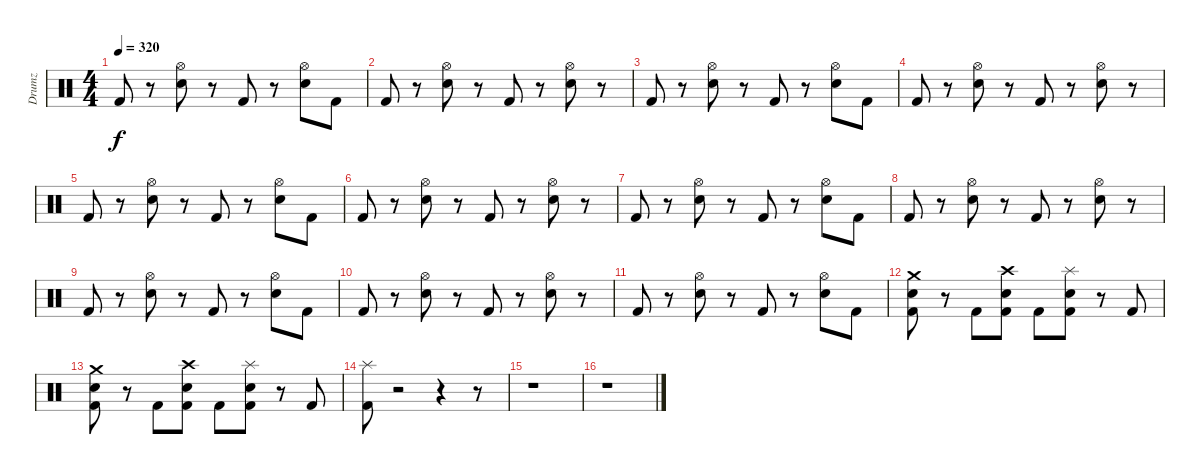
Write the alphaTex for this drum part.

\track ("Drumz" "Drumz") {instrument percussion}
\staff {score}
\articulation defaults
\ts (4 4)
\tempo 320
\clef neutral
\ks c "Kick (hit) 2".8{dy f}
r.8 ("Snare (hit) 2" "Hi-Hat (open)").8 r.8 "Kick (hit) 2".8 r.8 ("Snare (hit) 2" "Hi-Hat (open)").8 "Kick (hit) 2".8 |
"Kick (hit) 2".8 r.8 ("Snare (hit) 2" "Hi-Hat (open)").8 r.8 "Kick (hit) 2".8 r.8 ("Snare (hit) 2" "Hi-Hat (open)").8 r.8 |
"Kick (hit) 2".8 r.8 ("Snare (hit) 2" "Hi-Hat (open)").8 r.8 "Kick (hit) 2".8 r.8 ("Snare (hit) 2" "Hi-Hat (open)").8 "Kick (hit) 2".8 |
"Kick (hit) 2".8 r.8 ("Snare (hit) 2" "Hi-Hat (open)").8 r.8 "Kick (hit) 2".8 r.8 ("Snare (hit) 2" "Hi-Hat (open)").8 r.8 |
"Kick (hit) 2".8 r.8 ("Snare (hit) 2" "Hi-Hat (open)").8 r.8 "Kick (hit) 2".8 r.8 ("Snare (hit) 2" "Hi-Hat (open)").8 "Kick (hit) 2".8 |
"Kick (hit) 2".8 r.8 ("Snare (hit) 2" "Hi-Hat (open)").8 r.8 "Kick (hit) 2".8 r.8 ("Snare (hit) 2" "Hi-Hat (open)").8 r.8 |
"Kick (hit) 2".8 r.8 ("Snare (hit) 2" "Hi-Hat (open)").8 r.8 "Kick (hit) 2".8 r.8 ("Snare (hit) 2" "Hi-Hat (open)").8 "Kick (hit) 2".8 |
"Kick (hit) 2".8 r.8 ("Snare (hit) 2" "Hi-Hat (open)").8 r.8 "Kick (hit) 2".8 r.8 ("Snare (hit) 2" "Hi-Hat (open)").8 r.8 |
"Kick (hit) 2".8 r.8 ("Snare (hit) 2" "Hi-Hat (open)").8 r.8 "Kick (hit) 2".8 r.8 ("Snare (hit) 2" "Hi-Hat (open)").8 "Kick (hit) 2".8 |
"Kick (hit) 2".8 r.8 ("Snare (hit) 2" "Hi-Hat (open)").8 r.8 "Kick (hit) 2".8 r.8 ("Snare (hit) 2" "Hi-Hat (open)").8 r.8 |
"Kick (hit) 2".8 r.8 ("Snare (hit) 2" "Hi-Hat (open)").8 r.8 "Kick (hit) 2".8 r.8 ("Snare (hit) 2" "Hi-Hat (open)").8 "Kick (hit) 2".8 |
("Crash medium (hit)" "Snare (hit) 2" "Kick (hit) 2").8 r.8 "Kick (hit) 2".8 ("Crash high (hit)" "Snare (hit) 2" "Kick (hit) 2").8 "Kick (hit) 2".8 ("Splash (hit)" "Snare (hit) 2" "Kick (hit) 2").8 r.8 "Kick (hit) 2".8 |
("Crash medium (hit)" "Snare (hit) 2" "Kick (hit) 2").8 r.8 "Kick (hit) 2".8 ("Crash high (hit)" "Snare (hit) 2" "Kick (hit) 2").8 "Kick (hit) 2".8 ("Splash (hit)" "Snare (hit) 2" "Kick (hit) 2").8 r.8 "Kick (hit) 2".8 |
("Kick (hit) 2" "Splash (hit)").8 r.2 r.4 r.8 |
r.1 |
r.1
